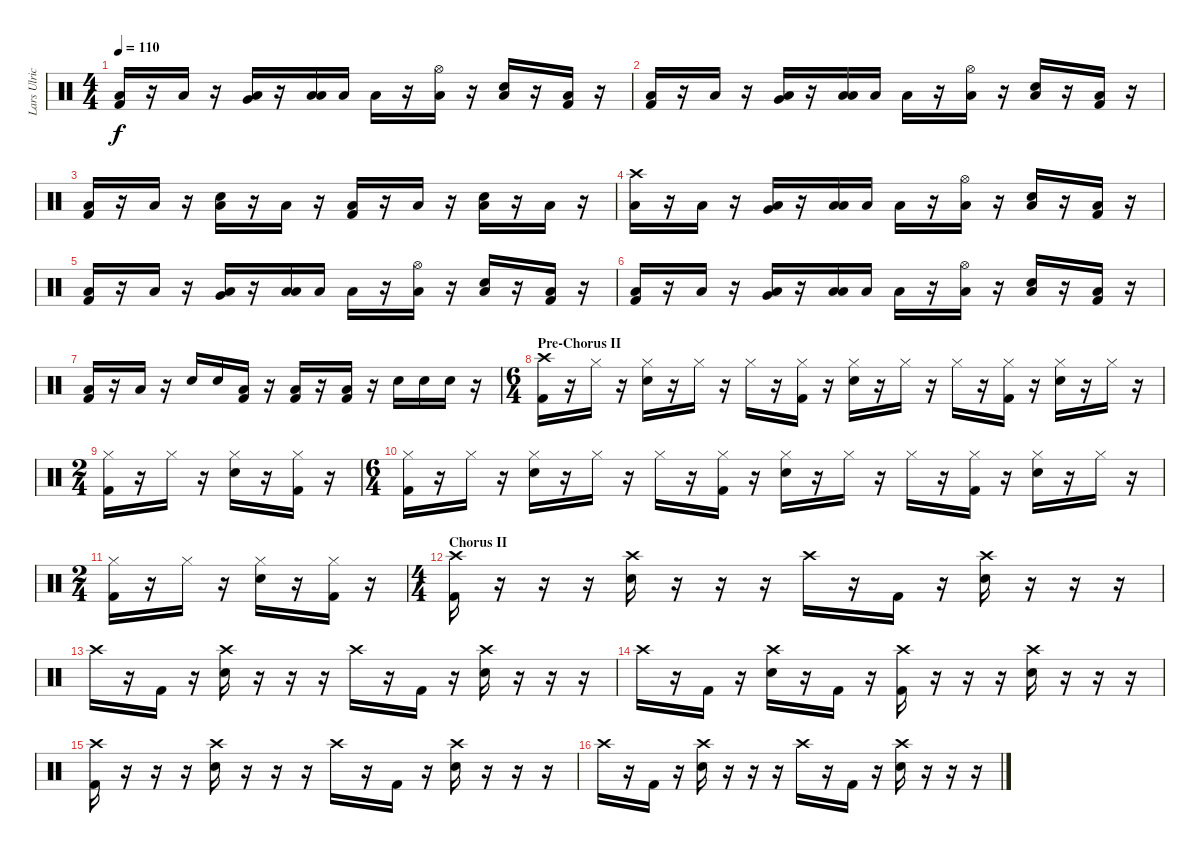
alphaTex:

\track ("Lars Ulrich - Drums" "Lars Ulric") {instrument percussion}
\staff {score}
\articulation defaults
\ts (4 4)
\tempo 110
\clef neutral
\ks c
("Kick (hit) 2" "Low Floor Tom (hit)").16{dy f} r.16 "Low Floor Tom (hit)".16 r.16 ("Very Low Tom (hit)" "Low Floor Tom (hit)").16 r.16 ("Low Tom (hit)" "Low Floor Tom (hit)").16 "Low Tom (hit)".16 "Low Floor Tom (hit)".16 r.16 ("Hi-Hat (open)" "Low Floor Tom (hit)").16 r.16 ("Snare (hit) 2" "Low Floor Tom (hit)").16 r.16 ("Kick (hit) 2" "Low Floor Tom (hit)").16 r.16 |
("Kick (hit) 2" "Low Floor Tom (hit)").16 r.16 "Low Floor Tom (hit)".16 r.16 ("Very Low Tom (hit)" "Low Floor Tom (hit)").16 r.16 ("Low Tom (hit)" "Low Floor Tom (hit)").16 "Low Tom (hit)".16 "Low Floor Tom (hit)".16 r.16 ("Hi-Hat (open)" "Low Floor Tom (hit)").16 r.16 ("Snare (hit) 2" "Low Floor Tom (hit)").16 r.16 ("Kick (hit) 2" "Low Floor Tom (hit)").16 r.16 |
("Kick (hit) 2" "Low Floor Tom (hit)").16 r.16 "Low Floor Tom (hit)".16 r.16 ("Snare (hit) 2" "Low Floor Tom (hit)").16 r.16 "Low Floor Tom (hit)".16 r.16 ("Kick (hit) 2" "Low Floor Tom (hit)").16 r.16 "Low Floor Tom (hit)".16 r.16 ("Snare (hit) 2" "Low Floor Tom (hit)").16 r.16 "Low Floor Tom (hit)".16 r.16 |
("Crash high (hit)" "Low Floor Tom (hit)").16 r.16 "Low Floor Tom (hit)".16 r.16 ("Very Low Tom (hit)" "Low Floor Tom (hit)").16 r.16 ("Low Tom (hit)" "Low Floor Tom (hit)").16 "Low Tom (hit)".16 "Low Floor Tom (hit)".16 r.16 ("Hi-Hat (open)" "Low Floor Tom (hit)").16 r.16 ("Snare (hit) 2" "Low Floor Tom (hit)").16 r.16 ("Kick (hit) 2" "Low Floor Tom (hit)").16 r.16 |
("Kick (hit) 2" "Low Floor Tom (hit)").16 r.16 "Low Floor Tom (hit)".16 r.16 ("Very Low Tom (hit)" "Low Floor Tom (hit)").16 r.16 ("Low Tom (hit)" "Low Floor Tom (hit)").16 "Low Tom (hit)".16 "Low Floor Tom (hit)".16 r.16 ("Hi-Hat (open)" "Low Floor Tom (hit)").16 r.16 ("Snare (hit) 2" "Low Floor Tom (hit)").16 r.16 ("Kick (hit) 2" "Low Floor Tom (hit)").16 r.16 |
("Kick (hit) 2" "Low Floor Tom (hit)").16 r.16 "Low Floor Tom (hit)".16 r.16 ("Very Low Tom (hit)" "Low Floor Tom (hit)").16 r.16 ("Low Tom (hit)" "Low Floor Tom (hit)").16 "Low Tom (hit)".16 "Low Floor Tom (hit)".16 r.16 ("Hi-Hat (open)" "Low Floor Tom (hit)").16 r.16 ("Snare (hit) 2" "Low Floor Tom (hit)").16 r.16 ("Kick (hit) 2" "Low Floor Tom (hit)").16 r.16 |
("Kick (hit) 2" "Low Floor Tom (hit)").16 r.16 "Low Floor Tom (hit)".16 r.16 "Snare (hit) 2".16 "Snare (hit) 2".16 ("Kick (hit) 2" "Low Floor Tom (hit)").16 r.16 ("Kick (hit) 2" "Low Floor Tom (hit)").16 r.16 ("Kick (hit) 2" "Low Floor Tom (hit)").16 r.16 "Snare (hit) 2".16 "Snare (hit) 2".16 "Snare (hit) 2".16 r.16 |
\ts (6 4)
\section ("" "Pre-Chorus II")
("Crash high (hit)" "Kick (hit) 2").16 r.16 "Hi-Hat (closed)".16 r.16 ("Hi-Hat (closed)" "Snare (hit) 2").16 r.16 "Hi-Hat (closed)".16 r.16 "Hi-Hat (closed)".16 r.16 ("Hi-Hat (closed)" "Kick (hit) 2").16 r.16 ("Hi-Hat (closed)" "Snare (hit) 2").16 r.16 "Hi-Hat (closed)".16 r.16 "Hi-Hat (closed)".16 r.16 ("Hi-Hat (closed)" "Kick (hit) 2").16 r.16 ("Hi-Hat (closed)" "Snare (hit) 2").16 r.16 "Hi-Hat (closed)".16 r.16 |
\ts (2 4)
("Hi-Hat (closed)" "Kick (hit) 2").16 r.16 "Hi-Hat (closed)".16 r.16 ("Hi-Hat (closed)" "Snare (hit) 2").16 r.16 ("Hi-Hat (closed)" "Kick (hit) 2").16 r.16 |
\ts (6 4)
("Hi-Hat (closed)" "Kick (hit) 2").16 r.16 "Hi-Hat (closed)".16 r.16 ("Hi-Hat (closed)" "Snare (hit) 2").16 r.16 "Hi-Hat (closed)".16 r.16 "Hi-Hat (closed)".16 r.16 ("Hi-Hat (closed)" "Kick (hit) 2").16 r.16 ("Hi-Hat (closed)" "Snare (hit) 2").16 r.16 "Hi-Hat (closed)".16 r.16 "Hi-Hat (closed)".16 r.16 ("Hi-Hat (closed)" "Kick (hit) 2").16 r.16 ("Hi-Hat (closed)" "Snare (hit) 2").16 r.16 "Hi-Hat (closed)".16 r.16 |
\ts (2 4)
("Hi-Hat (closed)" "Kick (hit) 2").16 r.16 "Hi-Hat (closed)".16 r.16 ("Hi-Hat (closed)" "Snare (hit) 2").16 r.16 ("Hi-Hat (closed)" "Kick (hit) 2").16 r.16 |
\ts (4 4)
\section ("" "Chorus II")
("Crash high (hit)" "Kick (hit) 2").16 r.16 r.16 r.16 ("Crash high (hit)" "Snare (hit) 2").16 r.16 r.16 r.16 "Crash high (hit)".16 r.16 "Kick (hit) 2".16 r.16 ("Crash high (hit)" "Snare (hit) 2").16 r.16 r.16 r.16 |
"Crash high (hit)".16 r.16 "Kick (hit) 2".16 r.16 ("Crash high (hit)" "Snare (hit) 2").16 r.16 r.16 r.16 "Crash high (hit)".16 r.16 "Kick (hit) 2".16 r.16 ("Crash high (hit)" "Snare (hit) 2").16 r.16 r.16 r.16 |
"Crash high (hit)".16 r.16 "Kick (hit) 2".16 r.16 ("Crash high (hit)" "Snare (hit) 2").16 r.16 "Kick (hit) 2".16 r.16 ("Crash high (hit)" "Kick (hit) 2").16 r.16 r.16 r.16 ("Crash high (hit)" "Snare (hit) 2").16 r.16 r.16 r.16 |
("Crash high (hit)" "Kick (hit) 2").16 r.16 r.16 r.16 ("Crash high (hit)" "Snare (hit) 2").16 r.16 r.16 r.16 "Crash high (hit)".16 r.16 "Kick (hit) 2".16 r.16 ("Crash high (hit)" "Snare (hit) 2").16 r.16 r.16 r.16 |
"Crash high (hit)".16 r.16 "Kick (hit) 2".16 r.16 ("Crash high (hit)" "Snare (hit) 2").16 r.16 r.16 r.16 "Crash high (hit)".16 r.16 "Kick (hit) 2".16 r.16 ("Crash high (hit)" "Snare (hit) 2").16 r.16 r.16 r.16
